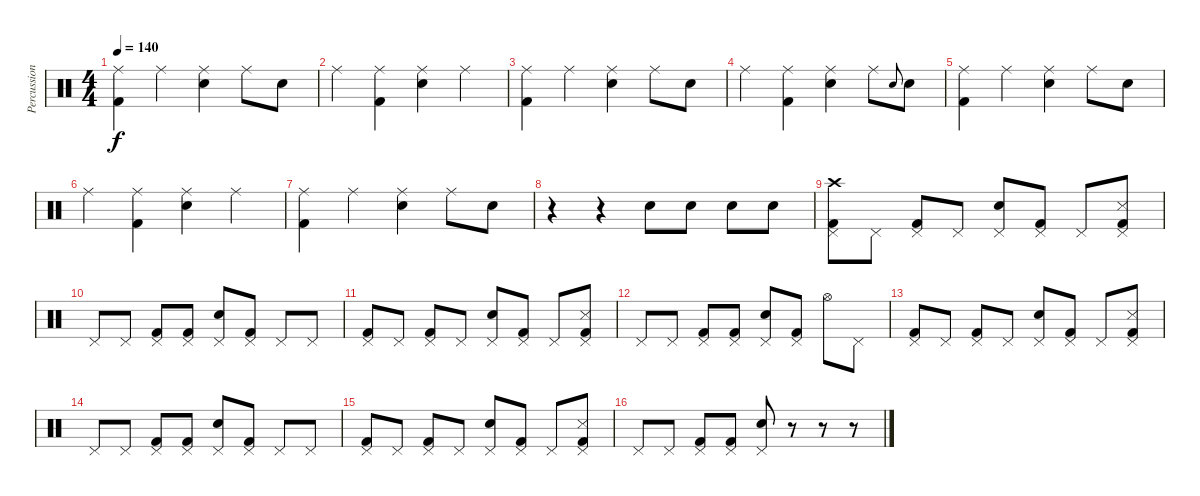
\track ("Percussion" "Percussion") {instrument percussion}
\staff {score}
\articulation defaults
\ts (4 4)
\tempo 140
\clef neutral
\ks c
("Ride (middle)" "Kick (hit) 2").4{dy f} "Ride (middle)".4 ("Ride (middle)" "Electric Snare (hit)").4 "Ride (middle)".8 "Electric Snare (hit)".8 |
"Ride (middle)".4 ("Ride (middle)" "Kick (hit) 2").4 ("Ride (middle)" "Electric Snare (hit)").4 "Ride (middle)".4 |
("Ride (middle)" "Kick (hit) 2").4 "Ride (middle)".4 ("Ride (middle)" "Electric Snare (hit)").4 "Ride (middle)".8 "Electric Snare (hit)".8 |
"Ride (middle)".4 ("Ride (middle)" "Kick (hit) 2").4 ("Ride (middle)" "Electric Snare (hit)").4 "Ride (middle)".8 "Electric Snare (hit)".8{gr onbeat} "Electric Snare (hit)".8 |
("Ride (middle)" "Kick (hit) 2").4 "Ride (middle)".4 ("Ride (middle)" "Electric Snare (hit)").4 "Ride (middle)".8 "Electric Snare (hit)".8 |
"Ride (middle)".4 ("Ride (middle)" "Kick (hit) 2").4 ("Ride (middle)" "Electric Snare (hit)").4 "Ride (middle)".4 |
("Ride (middle)" "Kick (hit) 2").4 "Ride (middle)".4 ("Ride (middle)" "Electric Snare (hit)").4 "Ride (middle)".8 "Electric Snare (hit)".8 |
r.4 r.4 "Electric Snare (hit)".8 "Electric Snare (hit)".8 "Electric Snare (hit)".8 "Electric Snare (hit)".8 |
("Pedal Hi-Hat (hit)" "Crash high (hit)" "Kick (hit) 2").8 "Pedal Hi-Hat (hit)".8 ("Pedal Hi-Hat (hit)" "Kick (hit) 2").8 "Pedal Hi-Hat (hit)".8 ("Pedal Hi-Hat (hit)" "Electric Snare (hit)").8 ("Pedal Hi-Hat (hit)" "Kick (hit) 2").8 "Pedal Hi-Hat (hit)".8 ("Snare (side stick) 3" "Pedal Hi-Hat (hit)" "Kick (hit) 2").8 |
"Pedal Hi-Hat (hit)".8 "Pedal Hi-Hat (hit)".8 ("Pedal Hi-Hat (hit)" "Kick (hit) 2").8 ("Pedal Hi-Hat (hit)" "Kick (hit) 2").8 ("Electric Snare (hit)" "Pedal Hi-Hat (hit)").8 ("Pedal Hi-Hat (hit)" "Kick (hit) 2").8 "Pedal Hi-Hat (hit)".8 "Pedal Hi-Hat (hit)".8 |
("Pedal Hi-Hat (hit)" "Kick (hit) 2").8 "Pedal Hi-Hat (hit)".8 ("Pedal Hi-Hat (hit)" "Kick (hit) 2").8 "Pedal Hi-Hat (hit)".8 ("Pedal Hi-Hat (hit)" "Electric Snare (hit)").8 ("Pedal Hi-Hat (hit)" "Kick (hit) 2").8 "Pedal Hi-Hat (hit)".8 ("Snare (side stick) 3" "Pedal Hi-Hat (hit)" "Kick (hit) 2").8 |
"Pedal Hi-Hat (hit)".8 "Pedal Hi-Hat (hit)".8 ("Pedal Hi-Hat (hit)" "Kick (hit) 2").8 ("Pedal Hi-Hat (hit)" "Kick (hit) 2").8 ("Electric Snare (hit)" "Pedal Hi-Hat (hit)").8 ("Pedal Hi-Hat (hit)" "Kick (hit) 2").8 "Hi-Hat (open)".8 "Pedal Hi-Hat (hit)".8 |
("Pedal Hi-Hat (hit)" "Kick (hit) 2").8 "Pedal Hi-Hat (hit)".8 ("Pedal Hi-Hat (hit)" "Kick (hit) 2").8 "Pedal Hi-Hat (hit)".8 ("Pedal Hi-Hat (hit)" "Electric Snare (hit)").8 ("Pedal Hi-Hat (hit)" "Kick (hit) 2").8 "Pedal Hi-Hat (hit)".8 ("Snare (side stick) 3" "Pedal Hi-Hat (hit)" "Kick (hit) 2").8 |
"Pedal Hi-Hat (hit)".8 "Pedal Hi-Hat (hit)".8 ("Pedal Hi-Hat (hit)" "Kick (hit) 2").8 ("Pedal Hi-Hat (hit)" "Kick (hit) 2").8 ("Electric Snare (hit)" "Pedal Hi-Hat (hit)").8 ("Pedal Hi-Hat (hit)" "Kick (hit) 2").8 "Pedal Hi-Hat (hit)".8 "Pedal Hi-Hat (hit)".8 |
("Pedal Hi-Hat (hit)" "Kick (hit) 2").8 "Pedal Hi-Hat (hit)".8 ("Pedal Hi-Hat (hit)" "Kick (hit) 2").8 "Pedal Hi-Hat (hit)".8 ("Pedal Hi-Hat (hit)" "Electric Snare (hit)").8 ("Pedal Hi-Hat (hit)" "Kick (hit) 2").8 "Pedal Hi-Hat (hit)".8 ("Snare (side stick) 3" "Pedal Hi-Hat (hit)" "Kick (hit) 2").8 |
"Pedal Hi-Hat (hit)".8 "Pedal Hi-Hat (hit)".8 ("Pedal Hi-Hat (hit)" "Kick (hit) 2").8 ("Pedal Hi-Hat (hit)" "Kick (hit) 2").8 ("Electric Snare (hit)" "Pedal Hi-Hat (hit)").8 r.8 r.8 r.8
